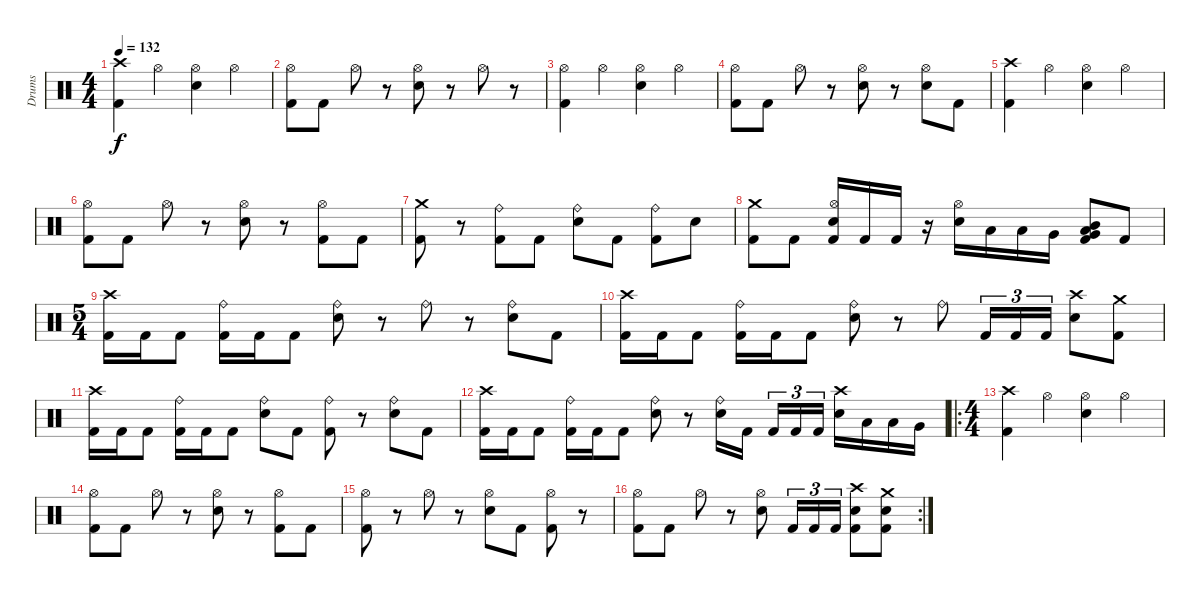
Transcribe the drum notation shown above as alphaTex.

\track ("Drums" "Drums") {instrument percussion}
\staff {score}
\articulation defaults
\ts (4 4)
\tempo 132
\clef neutral
\ks c
("Crash high (hit)" "Kick (hit) 2").4{dy f} "Hi-Hat (open)".4 ("Hi-Hat (open)" "Electric Snare (hit)").4 "Hi-Hat (open)".4 |
("Hi-Hat (open)" "Kick (hit) 2").8 "Kick (hit) 2".8 "Hi-Hat (open)".8 r.8 ("Hi-Hat (open)" "Electric Snare (hit)").8 r.8 "Hi-Hat (open)".8 r.8 |
("Hi-Hat (open)" "Kick (hit) 2").4 "Hi-Hat (open)".4 ("Hi-Hat (open)" "Electric Snare (hit)").4 "Hi-Hat (open)".4 |
("Hi-Hat (open)" "Kick (hit) 2").8 "Kick (hit) 2".8 "Hi-Hat (open)".8 r.8 ("Hi-Hat (open)" "Electric Snare (hit)").8 r.8 ("Hi-Hat (open)" "Electric Snare (hit)").8 "Kick (hit) 2".8 |
("Crash high (hit)" "Kick (hit) 2").4 "Hi-Hat (open)".4 ("Hi-Hat (open)" "Electric Snare (hit)").4 "Hi-Hat (open)".4 |
("Hi-Hat (open)" "Kick (hit) 2").8 "Kick (hit) 2".8 "Hi-Hat (open)".8 r.8 ("Hi-Hat (open)" "Electric Snare (hit)").8 r.8 ("Hi-Hat (open)" "Kick (hit) 2").8 "Kick (hit) 2".8 |
("Crash medium (hit)" "Kick (hit) 2").8 r.8 ("Ride (bell)" "Kick (hit) 2").8 "Kick (hit) 2".8 ("Ride (bell)" "Electric Snare (hit)").8 "Kick (hit) 2".8 ("Ride (bell)" "Kick (hit) 2").8 "Electric Snare (hit)".8 |
("Crash medium (hit)" "Kick (hit) 2").8 "Kick (hit) 2".8 ("Hi-Hat (open)" "Electric Snare (hit)" "Kick (hit) 2").16 "Kick (hit) 2".16 "Kick (hit) 2".16 r.16 ("Hi-Hat (open)" "Electric Snare (hit)").16 "Low Tom (hit)".16 "Low Tom (hit)".16 "Very Low Tom (hit)".16 ("Kick (hit) 2" "Low Tom (hit)" "Very Low Tom (hit)" "Mid Tom (hit)").8 "Kick (hit) 2".8 |
\ts (5 4)
("Crash high (hit)" "Kick (hit) 2").16 "Kick (hit) 2".16 "Kick (hit) 2".8 ("Ride (bell)" "Kick (hit) 2").16 "Kick (hit) 2".16 "Kick (hit) 2".8 ("Ride (bell)" "Electric Snare (hit)").8 r.8 "Ride (bell)".8 r.8 ("Ride (bell)" "Electric Snare (hit)").8 "Kick (hit) 2".8 |
("Crash high (hit)" "Kick (hit) 2").16 "Kick (hit) 2".16 "Kick (hit) 2".8 ("Ride (bell)" "Kick (hit) 2").16 "Kick (hit) 2".16 "Kick (hit) 2".8 ("Ride (bell)" "Electric Snare (hit)").8 r.8 "Ride (bell)".8 "Kick (hit) 2".16{tu (3 2)} "Kick (hit) 2".16{tu (3 2)} "Kick (hit) 2".16{tu (3 2)} ("Crash high (hit)" "Electric Snare (hit)").8 ("Crash medium (hit)" "Kick (hit) 2").8 |
("Crash high (hit)" "Kick (hit) 2").16 "Kick (hit) 2".16 "Kick (hit) 2".8 ("Ride (bell)" "Kick (hit) 2").16 "Kick (hit) 2".16 "Kick (hit) 2".8 ("Ride (bell)" "Electric Snare (hit)").8 "Kick (hit) 2".8 ("Ride (bell)" "Kick (hit) 2").8 r.8 ("Ride (bell)" "Electric Snare (hit)").8 "Kick (hit) 2".8 |
("Crash high (hit)" "Kick (hit) 2").16 "Kick (hit) 2".16 "Kick (hit) 2".8 ("Ride (bell)" "Kick (hit) 2").16 "Kick (hit) 2".16 "Kick (hit) 2".8 ("Ride (bell)" "Electric Snare (hit)").8 r.8 ("Ride (bell)" "Electric Snare (hit)").16 "Kick (hit) 2".16{beam splitsecondary} "Kick (hit) 2".16{tu (3 2)} "Kick (hit) 2".16{tu (3 2)} "Kick (hit) 2".16{tu (3 2)} ("Crash high (hit)" "Electric Snare (hit)").16 "Low Tom (hit)".16 "Low Tom (hit)".16 "Very Low Tom (hit)".16 |
\ro
\ts (4 4)
("Crash high (hit)" "Kick (hit) 2").4 "Hi-Hat (open)".4 ("Hi-Hat (open)" "Electric Snare (hit)").4 "Hi-Hat (open)".4 |
("Hi-Hat (open)" "Kick (hit) 2").8 "Kick (hit) 2".8 "Hi-Hat (open)".8 r.8 ("Hi-Hat (open)" "Electric Snare (hit)").8 r.8 ("Hi-Hat (open)" "Kick (hit) 2").8 "Kick (hit) 2".8 |
("Hi-Hat (open)" "Kick (hit) 2").8 r.8 "Hi-Hat (open)".8 r.8 ("Hi-Hat (open)" "Electric Snare (hit)").8 "Kick (hit) 2".8 ("Hi-Hat (open)" "Kick (hit) 2").8 r.8 |
\rc 2
("Hi-Hat (open)" "Kick (hit) 2").8 "Kick (hit) 2".8 "Hi-Hat (open)".8 r.8 ("Hi-Hat (open)" "Electric Snare (hit)").8 "Kick (hit) 2".16{tu (3 2)} "Kick (hit) 2".16{tu (3 2)} "Kick (hit) 2".16{tu (3 2)} ("Crash high (hit)" "Electric Snare (hit)" "Kick (hit) 2").8 ("Crash medium (hit)" "Electric Snare (hit)" "Kick (hit) 2").8
